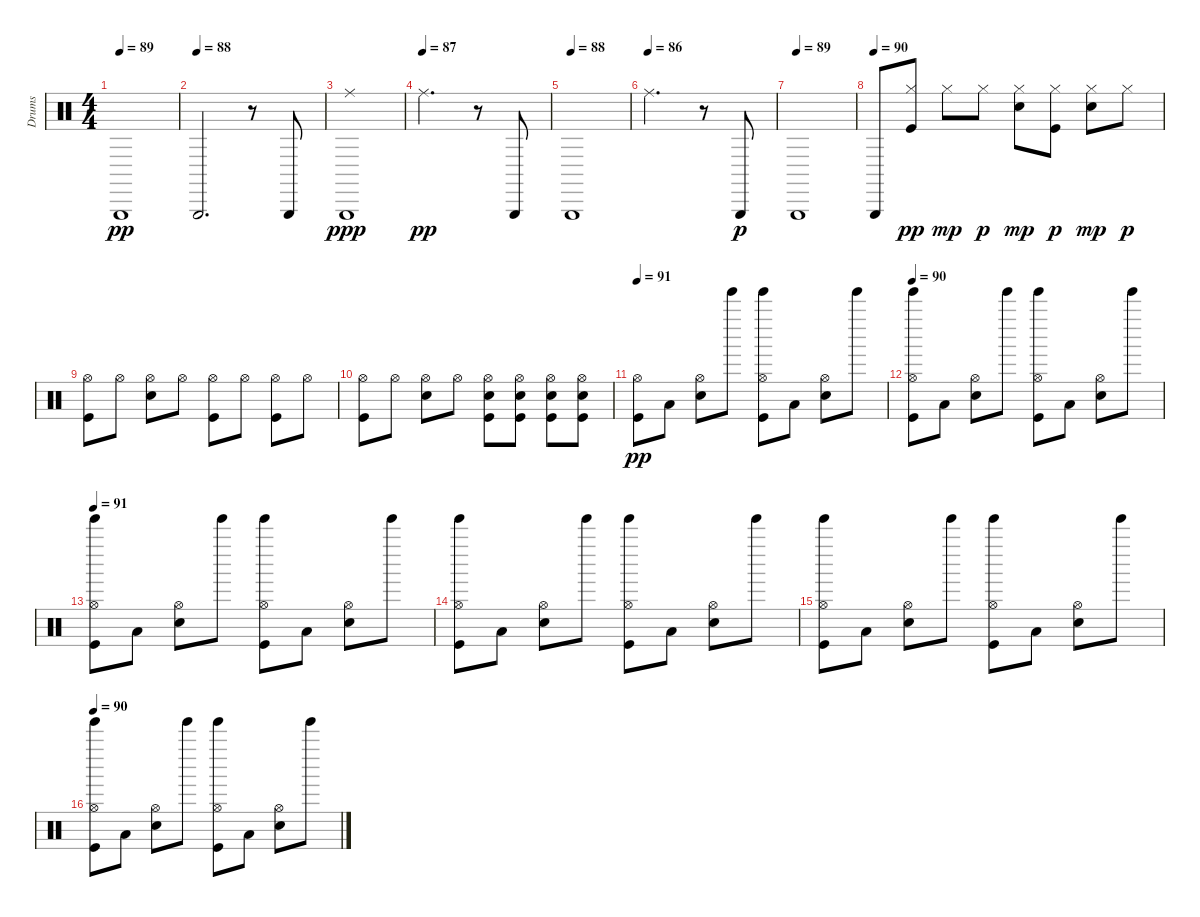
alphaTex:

\track ("Drums" "Drums") {instrument percussion}
\staff {score}
\articulation defaults
\ts (4 4)
\tempo 89
\clef neutral
\ks c "Triangle (hit)".1{dy pp}
|
\tempo (88)
"Triangle (hit)".2{d} r.8 "Triangle (hit)".8 |
("Triangle (hit)" "Ride (middle)").1{dy ppp} |
\tempo (87)
"Ride (middle)".2{d dy pp} r.8 "Triangle (hit)".8 |
\tempo (88)
"Triangle (hit)".1 |
\tempo (86)
"Ride (middle)".2{d} r.8 "Triangle (hit)".8{dy p} |
\tempo (89)
"Triangle (hit)".1 |
\tempo (90)
"Triangle (hit)".8 ("Kick (hit)" "Hi-Hat (closed)").8{dy pp} "Hi-Hat (closed)".8{dy mp} "Hi-Hat (closed)".8{dy p} ("Snare (hit) 2" "Hi-Hat (closed)").8{dy mp} ("Kick (hit)" "Hi-Hat (closed)").8{dy p} ("Snare (hit) 2" "Hi-Hat (closed)").8{dy mp} "Hi-Hat (closed)".8{dy p} |
("Kick (hit)" "Hi-Hat (open)").8 "Hi-Hat (open)".8 ("Snare (hit) 2" "Hi-Hat (open)").8 "Hi-Hat (open)".8 ("Kick (hit)" "Hi-Hat (open)").8 "Hi-Hat (open)".8 ("Kick (hit)" "Hi-Hat (open)").8 "Hi-Hat (open)".8 |
("Kick (hit)" "Hi-Hat (open)").8 "Hi-Hat (open)".8 ("Snare (hit) 2" "Hi-Hat (open)").8 "Hi-Hat (open)".8 ("Kick (hit)" "Snare (hit) 2" "Hi-Hat (open)").8 ("Kick (hit)" "Snare (hit) 2" "Hi-Hat (open)").8 ("Kick (hit)" "Snare (hit) 2" "Hi-Hat (open)").8 ("Kick (hit)" "Snare (hit) 2" "Hi-Hat (open)").8 |
\tempo 91
("Kick (hit)" "Hi-Hat (open)").8{dy pp} "Low Tom (hit)".8 ("Snare (hit) 2" "Hi-Hat (open)").8 "Tinkle Bell (hit)".8 ("Kick (hit)" "Hi-Hat (open)" "Tinkle Bell (hit)").8 "Low Tom (hit)".8 ("Snare (hit) 2" "Hi-Hat (open)").8 "Tinkle Bell (hit)".8 |
\tempo 90
("Kick (hit)" "Hi-Hat (open)" "Tinkle Bell (hit)").8 "Low Tom (hit)".8 ("Snare (hit) 2" "Hi-Hat (open)").8 "Tinkle Bell (hit)".8 ("Kick (hit)" "Hi-Hat (open)" "Tinkle Bell (hit)").8 "Low Tom (hit)".8 ("Snare (hit) 2" "Hi-Hat (open)").8 "Tinkle Bell (hit)".8 |
\tempo 91
("Kick (hit)" "Hi-Hat (open)" "Tinkle Bell (hit)").8 "Low Tom (hit)".8 ("Snare (hit) 2" "Hi-Hat (open)").8 "Tinkle Bell (hit)".8 ("Kick (hit)" "Hi-Hat (open)" "Tinkle Bell (hit)").8 "Low Tom (hit)".8 ("Snare (hit) 2" "Hi-Hat (open)").8 "Tinkle Bell (hit)".8 |
("Kick (hit)" "Hi-Hat (open)" "Tinkle Bell (hit)").8 "Low Tom (hit)".8 ("Snare (hit) 2" "Hi-Hat (open)").8 "Tinkle Bell (hit)".8 ("Kick (hit)" "Hi-Hat (open)" "Tinkle Bell (hit)").8 "Low Tom (hit)".8 ("Snare (hit) 2" "Hi-Hat (open)").8 "Tinkle Bell (hit)".8 |
("Kick (hit)" "Hi-Hat (open)" "Tinkle Bell (hit)").8 "Low Tom (hit)".8 ("Snare (hit) 2" "Hi-Hat (open)").8 "Tinkle Bell (hit)".8 ("Kick (hit)" "Hi-Hat (open)" "Tinkle Bell (hit)").8 "Low Tom (hit)".8 ("Snare (hit) 2" "Hi-Hat (open)").8 "Tinkle Bell (hit)".8 |
\tempo 90
("Kick (hit)" "Hi-Hat (open)" "Tinkle Bell (hit)").8 "Low Tom (hit)".8 ("Snare (hit) 2" "Hi-Hat (open)").8 "Tinkle Bell (hit)".8 ("Kick (hit)" "Hi-Hat (open)" "Tinkle Bell (hit)").8 "Low Tom (hit)".8 ("Snare (hit) 2" "Hi-Hat (open)").8 "Tinkle Bell (hit)".8
